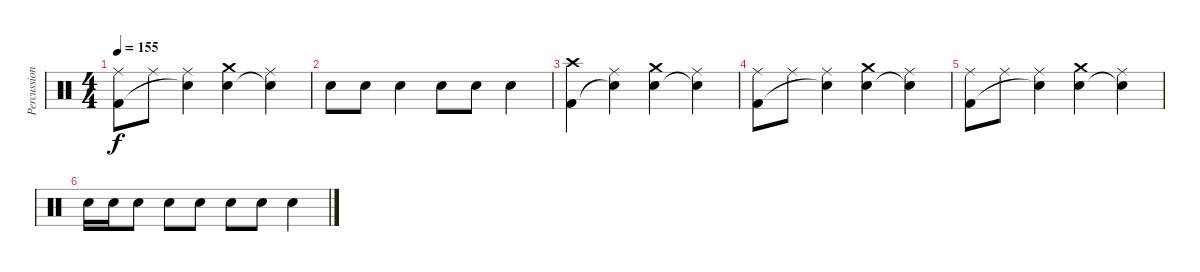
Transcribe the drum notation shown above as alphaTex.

\track ("Percussion" "Percussion") {instrument percussion}
\staff {score}
\articulation defaults
\ts (4 4)
\tempo 155
\clef neutral
\ks c
("Ride (middle)" "Kick (hit) 2").8{dy f} "Ride (middle)".8 ("Ride (middle)" "Snare (hit)"{t}).4 ("Crash medium (hit)" "Electric Snare (hit)").4 ("Ride (middle)" "Snare (hit)"{t}).4 |
"Electric Snare (hit)".8 "Electric Snare (hit)".8 "Electric Snare (hit)".4 "Electric Snare (hit)".8 "Electric Snare (hit)".8 "Electric Snare (hit)".4 |
("Crash high (hit)" "Kick (hit) 2").4 ("Ride (middle)" "Snare (hit)"{t}).4 ("Crash medium (hit)" "Electric Snare (hit)").4 ("Ride (middle)" "Snare (hit)"{t}).4 |
("Ride (middle)" "Kick (hit) 2").8 "Ride (middle)".8 ("Ride (middle)" "Snare (hit)"{t}).4 ("Crash medium (hit)" "Electric Snare (hit)").4 ("Ride (middle)" "Snare (hit)"{t}).4 |
("Ride (middle)" "Kick (hit) 2").8 "Ride (middle)".8 ("Ride (middle)" "Snare (hit)"{t}).4 ("Crash medium (hit)" "Electric Snare (hit)").4 ("Ride (middle)" "Snare (hit)"{t}).4 |
"Electric Snare (hit)".16 "Electric Snare (hit)".16 "Electric Snare (hit)".8 "Electric Snare (hit)".8 "Electric Snare (hit)".8 "Electric Snare (hit)".8 "Electric Snare (hit)".8 "Electric Snare (hit)".4
